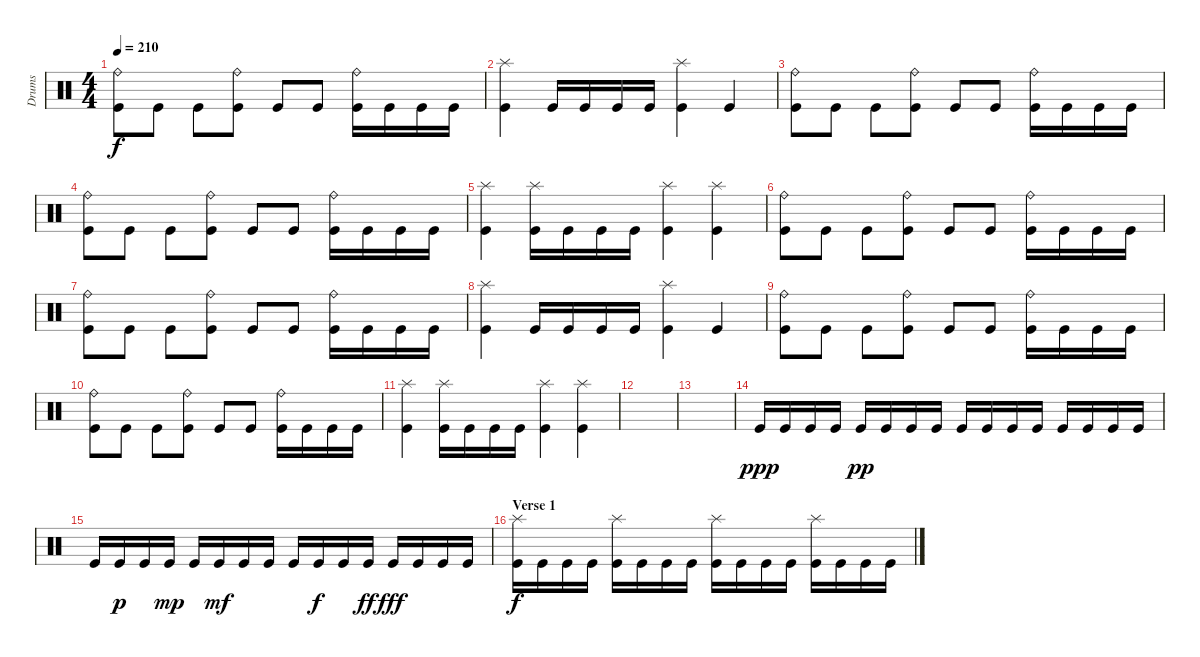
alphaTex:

\track ("Drums" "Drums") {instrument percussion}
\staff {score}
\articulation defaults
\ts (4 4)
\tempo 210
\clef neutral
\ks c
("Ride (bell)" "Kick (hit)").8{dy f} "Kick (hit)".8 "Kick (hit)".8 ("Ride (bell)" "Kick (hit)").8 "Kick (hit)".8 "Kick (hit)".8 ("Ride (bell)" "Kick (hit)").16 "Kick (hit)".16 "Kick (hit)".16 "Kick (hit)".16 |
("Splash (hit)" "Kick (hit)").4 "Kick (hit)".16 "Kick (hit)".16 "Kick (hit)".16 "Kick (hit)".16 ("Splash (hit)" "Kick (hit)").4 "Kick (hit)".4 |
("Ride (bell)" "Kick (hit)").8 "Kick (hit)".8 "Kick (hit)".8 ("Ride (bell)" "Kick (hit)").8 "Kick (hit)".8 "Kick (hit)".8 ("Ride (bell)" "Kick (hit)").16 "Kick (hit)".16 "Kick (hit)".16 "Kick (hit)".16 |
("Ride (bell)" "Kick (hit)").8 "Kick (hit)".8 "Kick (hit)".8 ("Ride (bell)" "Kick (hit)").8 "Kick (hit)".8 "Kick (hit)".8 ("Ride (bell)" "Kick (hit)").16 "Kick (hit)".16 "Kick (hit)".16 "Kick (hit)".16 |
("Splash (hit)" "Kick (hit)").4 ("Splash (hit)" "Kick (hit)").16 "Kick (hit)".16 "Kick (hit)".16 "Kick (hit)".16 ("Splash (hit)" "Kick (hit)").4 ("Splash (hit)" "Kick (hit)").4 |
("Ride (bell)" "Kick (hit)").8 "Kick (hit)".8 "Kick (hit)".8 ("Ride (bell)" "Kick (hit)").8 "Kick (hit)".8 "Kick (hit)".8 ("Ride (bell)" "Kick (hit)").16 "Kick (hit)".16 "Kick (hit)".16 "Kick (hit)".16 |
("Ride (bell)" "Kick (hit)").8 "Kick (hit)".8 "Kick (hit)".8 ("Ride (bell)" "Kick (hit)").8 "Kick (hit)".8 "Kick (hit)".8 ("Ride (bell)" "Kick (hit)").16 "Kick (hit)".16 "Kick (hit)".16 "Kick (hit)".16 |
("Splash (hit)" "Kick (hit)").4 "Kick (hit)".16 "Kick (hit)".16 "Kick (hit)".16 "Kick (hit)".16 ("Splash (hit)" "Kick (hit)").4 "Kick (hit)".4 |
("Ride (bell)" "Kick (hit)").8 "Kick (hit)".8 "Kick (hit)".8 ("Ride (bell)" "Kick (hit)").8 "Kick (hit)".8 "Kick (hit)".8 ("Ride (bell)" "Kick (hit)").16 "Kick (hit)".16 "Kick (hit)".16 "Kick (hit)".16 |
("Ride (bell)" "Kick (hit)").8 "Kick (hit)".8 "Kick (hit)".8 ("Ride (bell)" "Kick (hit)").8 "Kick (hit)".8 "Kick (hit)".8 ("Ride (bell)" "Kick (hit)").16 "Kick (hit)".16 "Kick (hit)".16 "Kick (hit)".16 |
("Splash (hit)" "Kick (hit)").4 ("Splash (hit)" "Kick (hit)").16 "Kick (hit)".16 "Kick (hit)".16 "Kick (hit)".16 ("Splash (hit)" "Kick (hit)").4 ("Splash (hit)" "Kick (hit)").4 |
|
|
"Kick (hit)".16{dy ppp} "Kick (hit)".16 "Kick (hit)".16 "Kick (hit)".16 "Kick (hit)".16{dy pp} "Kick (hit)".16 "Kick (hit)".16 "Kick (hit)".16 "Kick (hit)".16 "Kick (hit)".16 "Kick (hit)".16 "Kick (hit)".16 "Kick (hit)".16 "Kick (hit)".16 "Kick (hit)".16 "Kick (hit)".16 |
"Kick (hit)".16 "Kick (hit)".16{dy p} "Kick (hit)".16 "Kick (hit)".16{dy mp} "Kick (hit)".16 "Kick (hit)".16{dy mf} "Kick (hit)".16 "Kick (hit)".16 "Kick (hit)".16 "Kick (hit)".16{dy f} "Kick (hit)".16 "Kick (hit)".16{dy ff} "Kick (hit)".16{dy fff} "Kick (hit)".16 "Kick (hit)".16 "Kick (hit)".16 |
\section ("" "Verse 1")
("Splash (hit)" "Kick (hit)").16{dy f} "Kick (hit)".16 "Kick (hit)".16 "Kick (hit)".16 ("Splash (hit)" "Kick (hit)").16 "Kick (hit)".16 "Kick (hit)".16 "Kick (hit)".16 ("Splash (hit)" "Kick (hit)").16 "Kick (hit)".16 "Kick (hit)".16 "Kick (hit)".16 ("Splash (hit)" "Kick (hit)").16 "Kick (hit)".16 "Kick (hit)".16 "Kick (hit)".16
